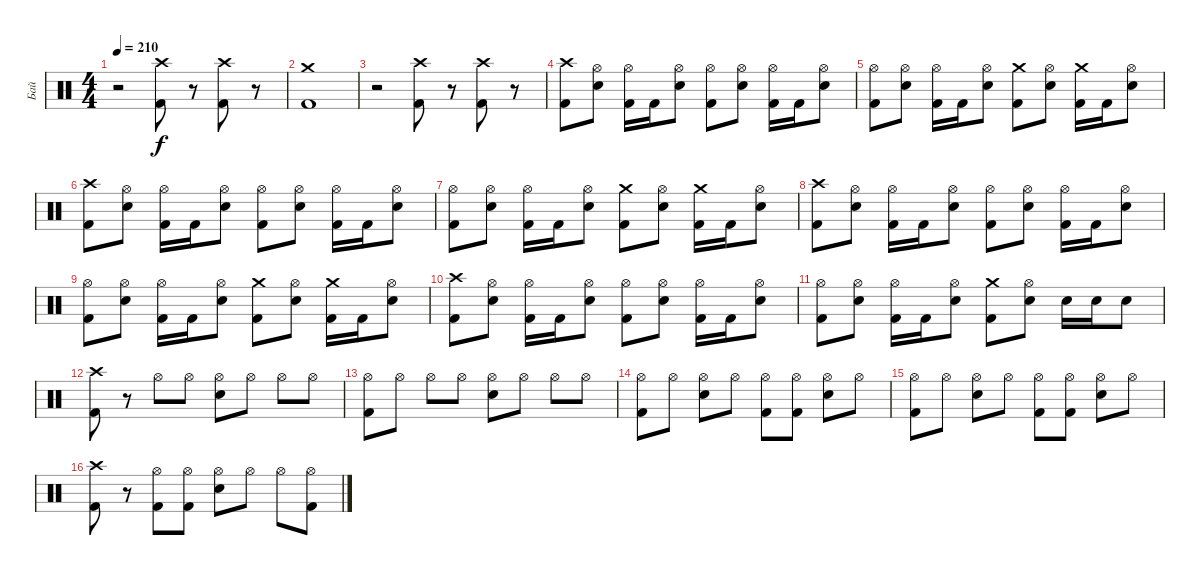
\track ("Бай" "Бай") {instrument percussion}
\staff {score}
\articulation defaults
\ts (4 4)
\tempo 210
\clef neutral
\ks c
r.2{dy f} ("Crash high (hit)" "Kick (hit) 2").8 r.8 ("Crash high (hit)" "Kick (hit) 2").8 r.8 |
("Crash medium (hit)" "Kick (hit) 2").1 |
r.2 ("Crash high (hit)" "Kick (hit) 2").8 r.8 ("Crash high (hit)" "Kick (hit) 2").8 r.8 |
("Crash high (hit)" "Kick (hit) 2").8 ("Hi-Hat (open)" "Electric Snare (hit)").8 ("Hi-Hat (open)" "Kick (hit) 2").16 "Kick (hit) 2".16 ("Hi-Hat (open)" "Electric Snare (hit)").8 ("Hi-Hat (open)" "Kick (hit) 2").8 ("Hi-Hat (open)" "Electric Snare (hit)").8 ("Hi-Hat (open)" "Kick (hit) 2").16 "Kick (hit) 2".16 ("Hi-Hat (open)" "Electric Snare (hit)").8 |
("Hi-Hat (open)" "Kick (hit) 2").8 ("Hi-Hat (open)" "Electric Snare (hit)").8 ("Hi-Hat (open)" "Kick (hit) 2").16 "Kick (hit) 2".16 ("Hi-Hat (open)" "Electric Snare (hit)").8 ("Crash medium (hit)" "Kick (hit) 2").8 ("Hi-Hat (open)" "Electric Snare (hit)").8 ("Crash medium (hit)" "Kick (hit) 2").16 "Kick (hit) 2".16 ("Hi-Hat (open)" "Electric Snare (hit)").8 |
("Crash high (hit)" "Kick (hit) 2").8 ("Hi-Hat (open)" "Electric Snare (hit)").8 ("Hi-Hat (open)" "Kick (hit) 2").16 "Kick (hit) 2".16 ("Hi-Hat (open)" "Electric Snare (hit)").8 ("Hi-Hat (open)" "Kick (hit) 2").8 ("Hi-Hat (open)" "Electric Snare (hit)").8 ("Hi-Hat (open)" "Kick (hit) 2").16 "Kick (hit) 2".16 ("Hi-Hat (open)" "Electric Snare (hit)").8 |
("Hi-Hat (open)" "Kick (hit) 2").8 ("Hi-Hat (open)" "Electric Snare (hit)").8 ("Hi-Hat (open)" "Kick (hit) 2").16 "Kick (hit) 2".16 ("Hi-Hat (open)" "Electric Snare (hit)").8 ("Crash medium (hit)" "Kick (hit) 2").8 ("Hi-Hat (open)" "Electric Snare (hit)").8 ("Crash medium (hit)" "Kick (hit) 2").16 "Kick (hit) 2".16 ("Hi-Hat (open)" "Electric Snare (hit)").8 |
("Crash high (hit)" "Kick (hit) 2").8 ("Hi-Hat (open)" "Electric Snare (hit)").8 ("Hi-Hat (open)" "Kick (hit) 2").16 "Kick (hit) 2".16 ("Hi-Hat (open)" "Electric Snare (hit)").8 ("Hi-Hat (open)" "Kick (hit) 2").8 ("Hi-Hat (open)" "Electric Snare (hit)").8 ("Hi-Hat (open)" "Kick (hit) 2").16 "Kick (hit) 2".16 ("Hi-Hat (open)" "Electric Snare (hit)").8 |
("Hi-Hat (open)" "Kick (hit) 2").8 ("Hi-Hat (open)" "Electric Snare (hit)").8 ("Hi-Hat (open)" "Kick (hit) 2").16 "Kick (hit) 2".16 ("Hi-Hat (open)" "Electric Snare (hit)").8 ("Crash medium (hit)" "Kick (hit) 2").8 ("Hi-Hat (open)" "Electric Snare (hit)").8 ("Crash medium (hit)" "Kick (hit) 2").16 "Kick (hit) 2".16 ("Hi-Hat (open)" "Electric Snare (hit)").8 |
("Crash high (hit)" "Kick (hit) 2").8 ("Hi-Hat (open)" "Electric Snare (hit)").8 ("Hi-Hat (open)" "Kick (hit) 2").16 "Kick (hit) 2".16 ("Hi-Hat (open)" "Electric Snare (hit)").8 ("Hi-Hat (open)" "Kick (hit) 2").8 ("Hi-Hat (open)" "Electric Snare (hit)").8 ("Hi-Hat (open)" "Kick (hit) 2").16 "Kick (hit) 2".16 ("Hi-Hat (open)" "Electric Snare (hit)").8 |
("Hi-Hat (open)" "Kick (hit) 2").8 ("Hi-Hat (open)" "Electric Snare (hit)").8 ("Hi-Hat (open)" "Kick (hit) 2").16 "Kick (hit) 2".16 ("Hi-Hat (open)" "Electric Snare (hit)").8 ("Crash medium (hit)" "Kick (hit) 2").8 ("Hi-Hat (open)" "Electric Snare (hit)").8 "Electric Snare (hit)".16 "Electric Snare (hit)".16 "Electric Snare (hit)".8 |
("Crash high (hit)" "Kick (hit) 2").8 r.8 "Hi-Hat (open)".8 "Hi-Hat (open)".8 ("Hi-Hat (open)" "Electric Snare (hit)").8 "Hi-Hat (open)".8 "Hi-Hat (open)".8 "Hi-Hat (open)".8 |
("Hi-Hat (open)" "Kick (hit) 2").8 "Hi-Hat (open)".8 "Hi-Hat (open)".8 "Hi-Hat (open)".8 ("Hi-Hat (open)" "Electric Snare (hit)").8 "Hi-Hat (open)".8 "Hi-Hat (open)".8 "Hi-Hat (open)".8 |
("Hi-Hat (open)" "Kick (hit) 2").8 "Hi-Hat (open)".8 ("Hi-Hat (open)" "Electric Snare (hit)").8 "Hi-Hat (open)".8 ("Hi-Hat (open)" "Kick (hit) 2").8 ("Hi-Hat (open)" "Kick (hit) 2").8 ("Hi-Hat (open)" "Electric Snare (hit)").8 "Hi-Hat (open)".8 |
("Hi-Hat (open)" "Kick (hit) 2").8 "Hi-Hat (open)".8 ("Hi-Hat (open)" "Electric Snare (hit)").8 "Hi-Hat (open)".8 ("Hi-Hat (open)" "Kick (hit) 2").8 ("Hi-Hat (open)" "Kick (hit) 2").8 ("Hi-Hat (open)" "Electric Snare (hit)").8 "Hi-Hat (open)".8 |
("Crash high (hit)" "Kick (hit) 2").8 r.8 ("Hi-Hat (open)" "Kick (hit) 2").8 ("Hi-Hat (open)" "Kick (hit) 2").8 ("Hi-Hat (open)" "Electric Snare (hit)").8 "Hi-Hat (open)".8 "Hi-Hat (open)".8 ("Hi-Hat (open)" "Kick (hit) 2").8
